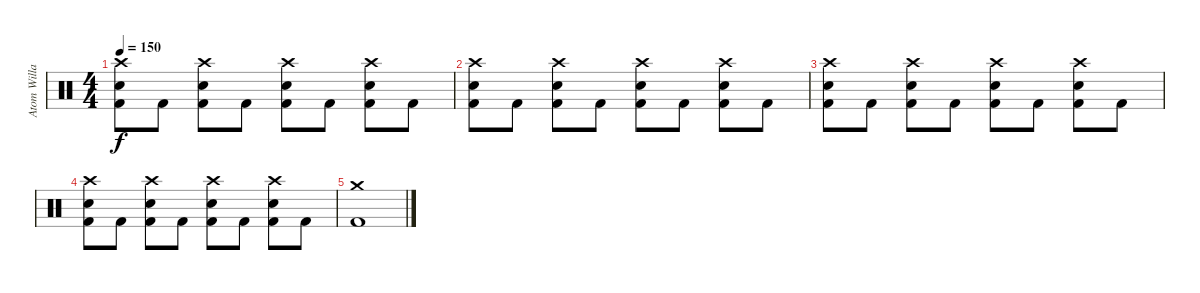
\track ("Atom Willard Drums" "Atom Willa") {instrument percussion}
\staff {score}
\articulation defaults
\ts (4 4)
\tempo 150
\clef neutral
\ks c
("Crash high (hit)" "Electric Snare (hit)" "Kick (hit) 2").8{dy f} "Kick (hit) 2".8 ("Crash high (hit)" "Electric Snare (hit)" "Kick (hit) 2").8 "Kick (hit) 2".8 ("Crash high (hit)" "Electric Snare (hit)" "Kick (hit) 2").8 "Kick (hit) 2".8 ("Crash high (hit)" "Electric Snare (hit)" "Kick (hit) 2").8 "Kick (hit) 2".8 |
("Crash high (hit)" "Electric Snare (hit)" "Kick (hit) 2").8 "Kick (hit) 2".8 ("Crash high (hit)" "Electric Snare (hit)" "Kick (hit) 2").8 "Kick (hit) 2".8 ("Crash high (hit)" "Electric Snare (hit)" "Kick (hit) 2").8 "Kick (hit) 2".8 ("Crash high (hit)" "Electric Snare (hit)" "Kick (hit) 2").8 "Kick (hit) 2".8 |
("Crash high (hit)" "Electric Snare (hit)" "Kick (hit) 2").8 "Kick (hit) 2".8 ("Crash high (hit)" "Electric Snare (hit)" "Kick (hit) 2").8 "Kick (hit) 2".8 ("Crash high (hit)" "Electric Snare (hit)" "Kick (hit) 2").8 "Kick (hit) 2".8 ("Crash high (hit)" "Electric Snare (hit)" "Kick (hit) 2").8 "Kick (hit) 2".8 |
("Crash high (hit)" "Electric Snare (hit)" "Kick (hit) 2").8 "Kick (hit) 2".8 ("Crash high (hit)" "Electric Snare (hit)" "Kick (hit) 2").8 "Kick (hit) 2".8 ("Crash high (hit)" "Electric Snare (hit)" "Kick (hit) 2").8 "Kick (hit) 2".8 ("Crash high (hit)" "Electric Snare (hit)" "Kick (hit) 2").8 "Kick (hit) 2".8 |
("Crash medium (hit)" "Kick (hit) 2").1
